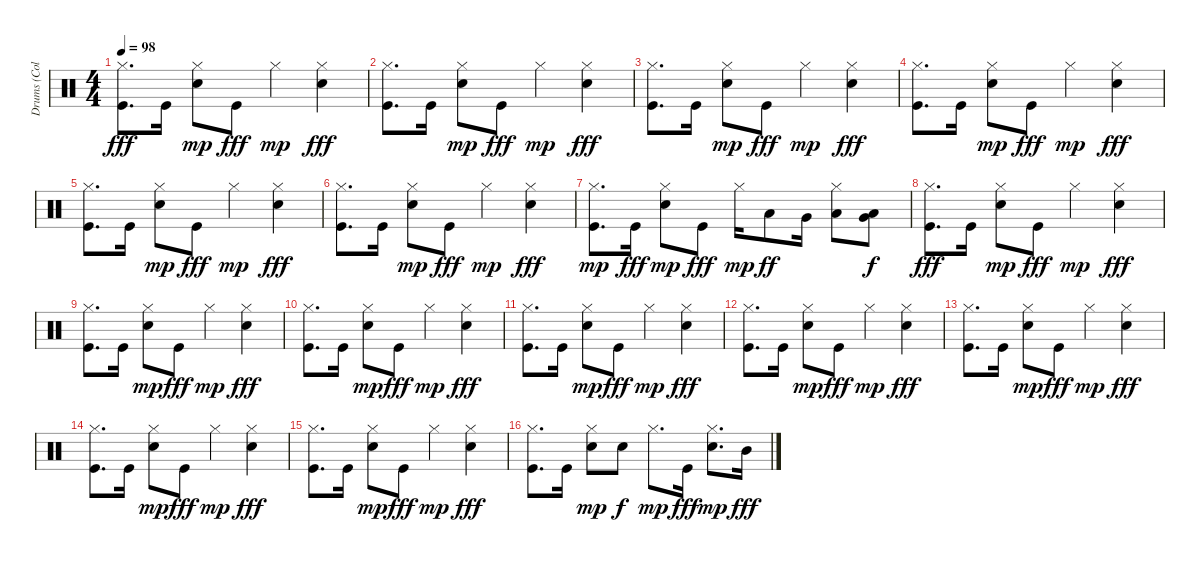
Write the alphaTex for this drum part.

\track ("Drums (Collins)" "Drums (Col") {instrument percussion}
\staff {score}
\articulation defaults
\ts (4 4)
\tempo 98
\clef neutral
\ks c
("Hi-Hat (closed)" "Kick (hit)").8{d dy fff} "Kick (hit)".16 ("Electric Snare (hit)" "Hi-Hat (closed)").8{dy mp} "Kick (hit)".8{dy fff} "Hi-Hat (closed)".4{dy mp} ("Hi-Hat (closed)" "Electric Snare (hit)").4{dy fff} |
("Hi-Hat (closed)" "Kick (hit)").8{d} "Kick (hit)".16 ("Electric Snare (hit)" "Hi-Hat (closed)").8{dy mp} "Kick (hit)".8{dy fff} "Hi-Hat (closed)".4{dy mp} ("Hi-Hat (closed)" "Electric Snare (hit)").4{dy fff} |
("Hi-Hat (closed)" "Kick (hit)").8{d} "Kick (hit)".16 ("Electric Snare (hit)" "Hi-Hat (closed)").8{dy mp} "Kick (hit)".8{dy fff} "Hi-Hat (closed)".4{dy mp} ("Hi-Hat (closed)" "Electric Snare (hit)").4{dy fff} |
("Hi-Hat (closed)" "Kick (hit)").8{d} "Kick (hit)".16 ("Electric Snare (hit)" "Hi-Hat (closed)").8{dy mp} "Kick (hit)".8{dy fff} "Hi-Hat (closed)".4{dy mp} ("Hi-Hat (closed)" "Electric Snare (hit)").4{dy fff} |
("Hi-Hat (closed)" "Kick (hit)").8{d} "Kick (hit)".16 ("Electric Snare (hit)" "Hi-Hat (closed)").8{dy mp} "Kick (hit)".8{dy fff} "Hi-Hat (closed)".4{dy mp} ("Hi-Hat (closed)" "Electric Snare (hit)").4{dy fff} |
("Hi-Hat (closed)" "Kick (hit)").8{d} "Kick (hit)".16 ("Electric Snare (hit)" "Hi-Hat (closed)").8{dy mp} "Kick (hit)".8{dy fff} "Hi-Hat (closed)".4{dy mp} ("Hi-Hat (closed)" "Electric Snare (hit)").4{dy fff} |
("Kick (hit)" "Hi-Hat (closed)").8{d dy mp} "Kick (hit)".16{dy fff} ("Electric Snare (hit)" "Hi-Hat (closed)").8{dy mp} "Kick (hit)".8{dy fff} "Hi-Hat (closed)".16{dy mp} "Low Tom (hit)".8{dy ff} "Very Low Tom (hit)".16 ("Hi-Hat (closed)" "Low Tom (hit)").8 ("Low Floor Tom (hit)" "Very Low Tom (hit)").8{dy f} |
("Hi-Hat (closed)" "Kick (hit)").8{d dy fff} "Kick (hit)".16 ("Electric Snare (hit)" "Hi-Hat (closed)").8{dy mp} "Kick (hit)".8{dy fff} "Hi-Hat (closed)".4{dy mp} ("Hi-Hat (closed)" "Electric Snare (hit)").4{dy fff} |
("Hi-Hat (closed)" "Kick (hit)").8{d} "Kick (hit)".16 ("Electric Snare (hit)" "Hi-Hat (closed)").8{dy mp} "Kick (hit)".8{dy fff} "Hi-Hat (closed)".4{dy mp} ("Hi-Hat (closed)" "Electric Snare (hit)").4{dy fff} |
("Hi-Hat (closed)" "Kick (hit)").8{d} "Kick (hit)".16 ("Electric Snare (hit)" "Hi-Hat (closed)").8{dy mp} "Kick (hit)".8{dy fff} "Hi-Hat (closed)".4{dy mp} ("Hi-Hat (closed)" "Electric Snare (hit)").4{dy fff} |
("Hi-Hat (closed)" "Kick (hit)").8{d} "Kick (hit)".16 ("Electric Snare (hit)" "Hi-Hat (closed)").8{dy mp} "Kick (hit)".8{dy fff} "Hi-Hat (closed)".4{dy mp} ("Hi-Hat (closed)" "Electric Snare (hit)").4{dy fff} |
("Hi-Hat (closed)" "Kick (hit)").8{d} "Kick (hit)".16 ("Electric Snare (hit)" "Hi-Hat (closed)").8{dy mp} "Kick (hit)".8{dy fff} "Hi-Hat (closed)".4{dy mp} ("Hi-Hat (closed)" "Electric Snare (hit)").4{dy fff} |
("Hi-Hat (closed)" "Kick (hit)").8{d} "Kick (hit)".16 ("Electric Snare (hit)" "Hi-Hat (closed)").8{dy mp} "Kick (hit)".8{dy fff} "Hi-Hat (closed)".4{dy mp} ("Hi-Hat (closed)" "Electric Snare (hit)").4{dy fff} |
("Hi-Hat (closed)" "Kick (hit)").8{d} "Kick (hit)".16 ("Electric Snare (hit)" "Hi-Hat (closed)").8{dy mp} "Kick (hit)".8{dy fff} "Hi-Hat (closed)".4{dy mp} ("Hi-Hat (closed)" "Electric Snare (hit)").4{dy fff} |
("Hi-Hat (closed)" "Kick (hit)").8{d} "Kick (hit)".16 ("Electric Snare (hit)" "Hi-Hat (closed)").8{dy mp} "Kick (hit)".8{dy fff} "Hi-Hat (closed)".4{dy mp} ("Hi-Hat (closed)" "Electric Snare (hit)").4{dy fff} |
("Hi-Hat (closed)" "Kick (hit)").8{d} "Kick (hit)".16 ("Electric Snare (hit)" "Hi-Hat (closed)").8{dy mp} "Electric Snare (hit)".8{dy f} "Hi-Hat (closed)".8{d dy mp} "Kick (hit)".16{dy fff} ("Electric Snare (hit)" "Hi-Hat (closed)").8{d dy mp} "Mid Tom (hit)".16{dy fff}
